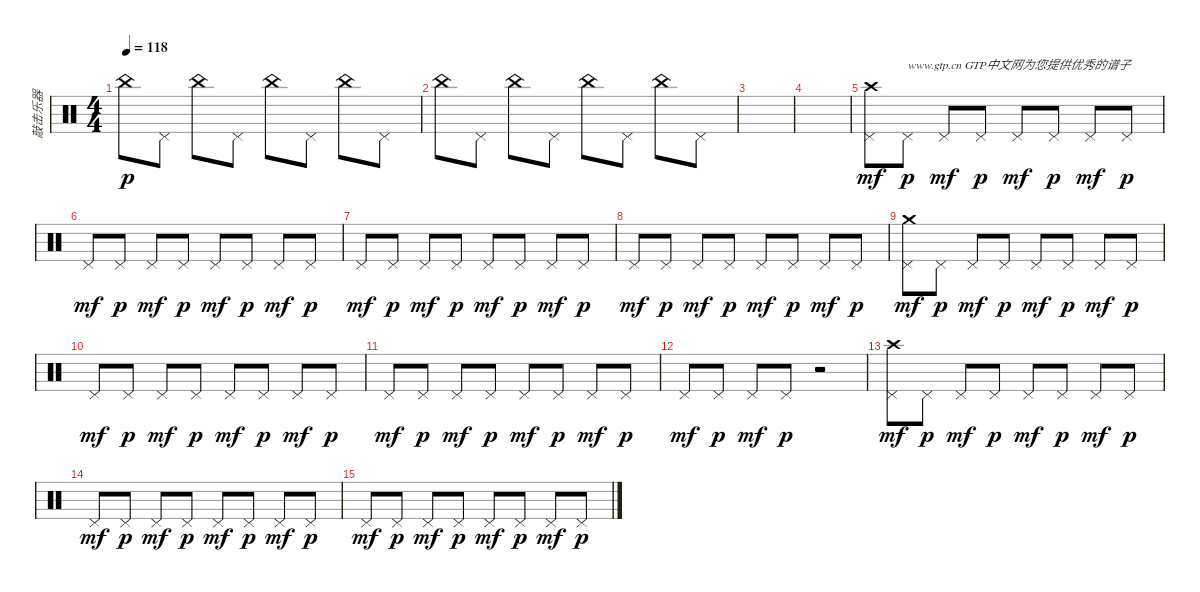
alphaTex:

\track ("敲击乐器" "敲击乐器") {instrument percussion}
\staff {score}
\articulation defaults
\ts (4 4)
\tempo 118
\clef neutral
\ks c "China (hit)".8{dy p} "Pedal Hi-Hat (hit)".8 "China (hit)".8 "Pedal Hi-Hat (hit)".8 "China (hit)".8 "Pedal Hi-Hat (hit)".8 "China (hit)".8 "Pedal Hi-Hat (hit)".8
|
"China (hit)".8 "Pedal Hi-Hat (hit)".8 "China (hit)".8 "Pedal Hi-Hat (hit)".8 "China (hit)".8 "Pedal Hi-Hat (hit)".8 "China (hit)".8 "Pedal Hi-Hat (hit)".8 |
|
|
("Crash high (hit)" "Pedal Hi-Hat (hit)").8{dy mf} "Pedal Hi-Hat (hit)".8{txt "www.gtp.cn GTP中文网为您提供优秀的谱子" dy p} "Pedal Hi-Hat (hit)".8{dy mf} "Pedal Hi-Hat (hit)".8{dy p} "Pedal Hi-Hat (hit)".8{dy mf} "Pedal Hi-Hat (hit)".8{dy p} "Pedal Hi-Hat (hit)".8{dy mf} "Pedal Hi-Hat (hit)".8{dy p} |
"Pedal Hi-Hat (hit)".8{dy mf} "Pedal Hi-Hat (hit)".8{dy p} "Pedal Hi-Hat (hit)".8{dy mf} "Pedal Hi-Hat (hit)".8{dy p} "Pedal Hi-Hat (hit)".8{dy mf} "Pedal Hi-Hat (hit)".8{dy p} "Pedal Hi-Hat (hit)".8{dy mf} "Pedal Hi-Hat (hit)".8{dy p} |
"Pedal Hi-Hat (hit)".8{dy mf} "Pedal Hi-Hat (hit)".8{dy p} "Pedal Hi-Hat (hit)".8{dy mf} "Pedal Hi-Hat (hit)".8{dy p} "Pedal Hi-Hat (hit)".8{dy mf} "Pedal Hi-Hat (hit)".8{dy p} "Pedal Hi-Hat (hit)".8{dy mf} "Pedal Hi-Hat (hit)".8{dy p} |
"Pedal Hi-Hat (hit)".8{dy mf} "Pedal Hi-Hat (hit)".8{dy p} "Pedal Hi-Hat (hit)".8{dy mf} "Pedal Hi-Hat (hit)".8{dy p} "Pedal Hi-Hat (hit)".8{dy mf} "Pedal Hi-Hat (hit)".8{dy p} "Pedal Hi-Hat (hit)".8{dy mf} "Pedal Hi-Hat (hit)".8{dy p} |
("Crash medium (hit)" "Pedal Hi-Hat (hit)").8{dy mf} "Pedal Hi-Hat (hit)".8{dy p} "Pedal Hi-Hat (hit)".8{dy mf} "Pedal Hi-Hat (hit)".8{dy p} "Pedal Hi-Hat (hit)".8{dy mf} "Pedal Hi-Hat (hit)".8{dy p} "Pedal Hi-Hat (hit)".8{dy mf} "Pedal Hi-Hat (hit)".8{dy p} |
"Pedal Hi-Hat (hit)".8{dy mf} "Pedal Hi-Hat (hit)".8{dy p} "Pedal Hi-Hat (hit)".8{dy mf} "Pedal Hi-Hat (hit)".8{dy p} "Pedal Hi-Hat (hit)".8{dy mf} "Pedal Hi-Hat (hit)".8{dy p} "Pedal Hi-Hat (hit)".8{dy mf} "Pedal Hi-Hat (hit)".8{dy p} |
"Pedal Hi-Hat (hit)".8{dy mf} "Pedal Hi-Hat (hit)".8{dy p} "Pedal Hi-Hat (hit)".8{dy mf} "Pedal Hi-Hat (hit)".8{dy p} "Pedal Hi-Hat (hit)".8{dy mf} "Pedal Hi-Hat (hit)".8{dy p} "Pedal Hi-Hat (hit)".8{dy mf} "Pedal Hi-Hat (hit)".8{dy p} |
"Pedal Hi-Hat (hit)".8{dy mf} "Pedal Hi-Hat (hit)".8{dy p} "Pedal Hi-Hat (hit)".8{dy mf} "Pedal Hi-Hat (hit)".8{dy p} r.2 |
("Crash high (hit)" "Pedal Hi-Hat (hit)").8{dy mf} "Pedal Hi-Hat (hit)".8{dy p} "Pedal Hi-Hat (hit)".8{dy mf} "Pedal Hi-Hat (hit)".8{dy p} "Pedal Hi-Hat (hit)".8{dy mf} "Pedal Hi-Hat (hit)".8{dy p} "Pedal Hi-Hat (hit)".8{dy mf} "Pedal Hi-Hat (hit)".8{dy p} |
"Pedal Hi-Hat (hit)".8{dy mf} "Pedal Hi-Hat (hit)".8{dy p} "Pedal Hi-Hat (hit)".8{dy mf} "Pedal Hi-Hat (hit)".8{dy p} "Pedal Hi-Hat (hit)".8{dy mf} "Pedal Hi-Hat (hit)".8{dy p} "Pedal Hi-Hat (hit)".8{dy mf} "Pedal Hi-Hat (hit)".8{dy p} |
"Pedal Hi-Hat (hit)".8{dy mf} "Pedal Hi-Hat (hit)".8{dy p} "Pedal Hi-Hat (hit)".8{dy mf} "Pedal Hi-Hat (hit)".8{dy p} "Pedal Hi-Hat (hit)".8{dy mf} "Pedal Hi-Hat (hit)".8{dy p} "Pedal Hi-Hat (hit)".8{dy mf} "Pedal Hi-Hat (hit)".8{dy p}
